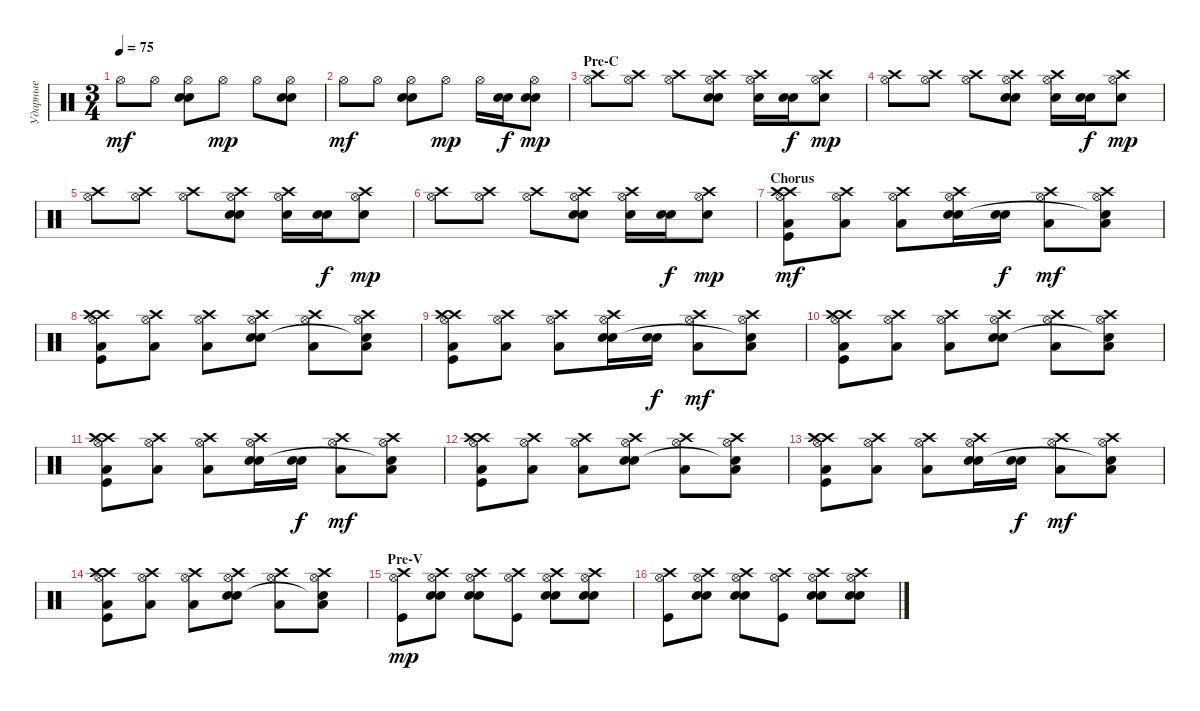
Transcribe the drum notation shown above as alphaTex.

\track ("Ударные" "Ударные") {instrument percussion}
\staff {score}
\articulation defaults
\ts (3 4)
\tempo 75
\clef neutral
\ks c "Hi-Hat (open)".8{dy mf} "Hi-Hat (open)".8
("Hi-Hat (open)" "Electric Snare (hit)" "Electric Snare (hit)").8 "Hi-Hat (open)".8{dy mp} "Hi-Hat (open)".8 ("Hi-Hat (open)" "Electric Snare (hit)" "Electric Snare (hit)").8 |
"Hi-Hat (open)".8{dy mf} "Hi-Hat (open)".8 ("Hi-Hat (open)" "Electric Snare (hit)" "Electric Snare (hit)").8 "Hi-Hat (open)".8{dy mp} "Hi-Hat (open)".16 ("Electric Snare (hit)" "Electric Snare (hit)").16{dy f} ("Hi-Hat (open)" "Electric Snare (hit)" "Electric Snare (hit)").8{dy mp} |
\section ("" "Pre-C")
("Hi-Hat (open)" "Crash high (hit)").8 ("Hi-Hat (open)" "Crash high (hit)").8 ("Hi-Hat (open)" "Crash high (hit)").8 ("Hi-Hat (open)" "Crash high (hit)" "Electric Snare (hit)" "Electric Snare (hit)").8 ("Hi-Hat (open)" "Crash high (hit)" "Snare (hit) 2").16 ("Electric Snare (hit)" "Electric Snare (hit)").16{dy f} ("Hi-Hat (open)" "Crash high (hit)" "Snare (hit) 2").8{dy mp} |
("Hi-Hat (open)" "Crash high (hit)").8 ("Hi-Hat (open)" "Crash high (hit)").8 ("Hi-Hat (open)" "Crash high (hit)").8 ("Hi-Hat (open)" "Crash high (hit)" "Electric Snare (hit)" "Electric Snare (hit)").8 ("Hi-Hat (open)" "Crash high (hit)" "Snare (hit) 2").16 ("Electric Snare (hit)" "Electric Snare (hit)").16{dy f} ("Hi-Hat (open)" "Crash high (hit)" "Snare (hit) 2").8{dy mp} |
("Hi-Hat (open)" "Crash high (hit)").8 ("Hi-Hat (open)" "Crash high (hit)").8 ("Hi-Hat (open)" "Crash high (hit)").8 ("Hi-Hat (open)" "Crash high (hit)" "Electric Snare (hit)" "Electric Snare (hit)").8 ("Hi-Hat (open)" "Crash high (hit)" "Snare (hit) 2").16 ("Electric Snare (hit)" "Electric Snare (hit)").16{dy f} ("Hi-Hat (open)" "Crash high (hit)" "Snare (hit) 2").8{dy mp} |
("Hi-Hat (open)" "Crash high (hit)").8 ("Hi-Hat (open)" "Crash high (hit)").8 ("Hi-Hat (open)" "Crash high (hit)").8 ("Hi-Hat (open)" "Crash high (hit)" "Electric Snare (hit)" "Electric Snare (hit)").8 ("Hi-Hat (open)" "Crash high (hit)" "Snare (hit) 2").16 ("Electric Snare (hit)" "Electric Snare (hit)").16{dy f} ("Hi-Hat (open)" "Crash high (hit)" "Snare (hit) 2").8{dy mp} |
\section ("" "Chorus")
("Hi-Hat (open)" "Crash high (hit)" "Low Floor Tom (hit)" "Kick (hit)" "Crash high (hit)").8{dy mf} ("Hi-Hat (open)" "Crash high (hit)" "Low Floor Tom (hit)").8 ("Hi-Hat (open)" "Crash high (hit)" "Low Floor Tom (hit)").8 ("Hi-Hat (open)" "Crash high (hit)" "Electric Snare (hit)" "Electric Snare (hit)").16 ("Electric Snare (hit)" "Electric Snare (hit)").16{dy f} ("Hi-Hat (open)" "Crash high (hit)" "Low Floor Tom (hit)").8{dy mf} ("Hi-Hat (open)" "Crash high (hit)" "Low Floor Tom (hit)" "Snare (hit)"{t}).8 |
("Hi-Hat (open)" "Crash high (hit)" "Low Floor Tom (hit)" "Kick (hit)" "Crash high (hit)").8 ("Hi-Hat (open)" "Crash high (hit)" "Low Floor Tom (hit)").8 ("Hi-Hat (open)" "Crash high (hit)" "Low Floor Tom (hit)").8 ("Hi-Hat (open)" "Crash high (hit)" "Electric Snare (hit)" "Electric Snare (hit)").8 ("Hi-Hat (open)" "Crash high (hit)" "Low Floor Tom (hit)").8 ("Hi-Hat (open)" "Crash high (hit)" "Low Floor Tom (hit)" "Snare (hit)"{t}).8 |
("Hi-Hat (open)" "Crash high (hit)" "Low Floor Tom (hit)" "Kick (hit)" "Crash high (hit)").8 ("Hi-Hat (open)" "Crash high (hit)" "Low Floor Tom (hit)").8 ("Hi-Hat (open)" "Crash high (hit)" "Low Floor Tom (hit)").8 ("Hi-Hat (open)" "Crash high (hit)" "Electric Snare (hit)" "Electric Snare (hit)").16 ("Electric Snare (hit)" "Electric Snare (hit)").16{dy f} ("Hi-Hat (open)" "Crash high (hit)" "Low Floor Tom (hit)").8{dy mf} ("Hi-Hat (open)" "Crash high (hit)" "Low Floor Tom (hit)" "Snare (hit)"{t}).8 |
("Hi-Hat (open)" "Crash high (hit)" "Low Floor Tom (hit)" "Kick (hit)" "Crash high (hit)").8 ("Hi-Hat (open)" "Crash high (hit)" "Low Floor Tom (hit)").8 ("Hi-Hat (open)" "Crash high (hit)" "Low Floor Tom (hit)").8 ("Hi-Hat (open)" "Crash high (hit)" "Electric Snare (hit)" "Electric Snare (hit)").8 ("Hi-Hat (open)" "Crash high (hit)" "Low Floor Tom (hit)").8 ("Hi-Hat (open)" "Crash high (hit)" "Low Floor Tom (hit)" "Snare (hit)"{t}).8 |
("Hi-Hat (open)" "Crash high (hit)" "Low Floor Tom (hit)" "Kick (hit)" "Crash high (hit)").8 ("Hi-Hat (open)" "Crash high (hit)" "Low Floor Tom (hit)").8 ("Hi-Hat (open)" "Crash high (hit)" "Low Floor Tom (hit)").8 ("Hi-Hat (open)" "Crash high (hit)" "Electric Snare (hit)" "Electric Snare (hit)").16 ("Electric Snare (hit)" "Electric Snare (hit)").16{dy f} ("Hi-Hat (open)" "Crash high (hit)" "Low Floor Tom (hit)").8{dy mf} ("Hi-Hat (open)" "Crash high (hit)" "Low Floor Tom (hit)" "Snare (hit)"{t}).8 |
("Hi-Hat (open)" "Crash high (hit)" "Low Floor Tom (hit)" "Kick (hit)" "Crash high (hit)").8 ("Hi-Hat (open)" "Crash high (hit)" "Low Floor Tom (hit)").8 ("Hi-Hat (open)" "Crash high (hit)" "Low Floor Tom (hit)").8 ("Hi-Hat (open)" "Crash high (hit)" "Electric Snare (hit)" "Electric Snare (hit)").8 ("Hi-Hat (open)" "Crash high (hit)" "Low Floor Tom (hit)").8 ("Hi-Hat (open)" "Crash high (hit)" "Low Floor Tom (hit)" "Snare (hit)"{t}).8 |
("Hi-Hat (open)" "Crash high (hit)" "Low Floor Tom (hit)" "Kick (hit)" "Crash high (hit)").8 ("Hi-Hat (open)" "Crash high (hit)" "Low Floor Tom (hit)").8 ("Hi-Hat (open)" "Crash high (hit)" "Low Floor Tom (hit)").8 ("Hi-Hat (open)" "Crash high (hit)" "Electric Snare (hit)" "Electric Snare (hit)").16 ("Electric Snare (hit)" "Electric Snare (hit)").16{dy f} ("Hi-Hat (open)" "Crash high (hit)" "Low Floor Tom (hit)").8{dy mf} ("Hi-Hat (open)" "Crash high (hit)" "Low Floor Tom (hit)" "Snare (hit)"{t}).8 |
("Hi-Hat (open)" "Crash high (hit)" "Low Floor Tom (hit)" "Kick (hit)" "Crash high (hit)").8 ("Hi-Hat (open)" "Crash high (hit)" "Low Floor Tom (hit)").8 ("Hi-Hat (open)" "Crash high (hit)" "Low Floor Tom (hit)").8 ("Hi-Hat (open)" "Crash high (hit)" "Electric Snare (hit)" "Electric Snare (hit)").8 ("Hi-Hat (open)" "Crash high (hit)" "Low Floor Tom (hit)").8 ("Hi-Hat (open)" "Crash high (hit)" "Low Floor Tom (hit)" "Snare (hit)"{t}).8 |
\section ("" "Pre-V")
("Hi-Hat (open)" "Crash high (hit)" "Kick (hit)").8{dy mp} ("Hi-Hat (open)" "Crash high (hit)" "Electric Snare (hit)" "Electric Snare (hit)").8 ("Hi-Hat (open)" "Crash high (hit)" "Electric Snare (hit)" "Electric Snare (hit)").8 ("Hi-Hat (open)" "Crash high (hit)" "Kick (hit)").8 ("Hi-Hat (open)" "Crash high (hit)" "Electric Snare (hit)" "Electric Snare (hit)").8 ("Hi-Hat (open)" "Crash high (hit)" "Electric Snare (hit)" "Electric Snare (hit)").8 |
("Hi-Hat (open)" "Crash high (hit)" "Kick (hit)").8 ("Hi-Hat (open)" "Crash high (hit)" "Electric Snare (hit)" "Electric Snare (hit)").8 ("Hi-Hat (open)" "Crash high (hit)" "Electric Snare (hit)" "Electric Snare (hit)").8 ("Hi-Hat (open)" "Crash high (hit)" "Kick (hit)").8 ("Hi-Hat (open)" "Crash high (hit)" "Electric Snare (hit)" "Electric Snare (hit)").8 ("Hi-Hat (open)" "Crash high (hit)" "Electric Snare (hit)" "Electric Snare (hit)").8
